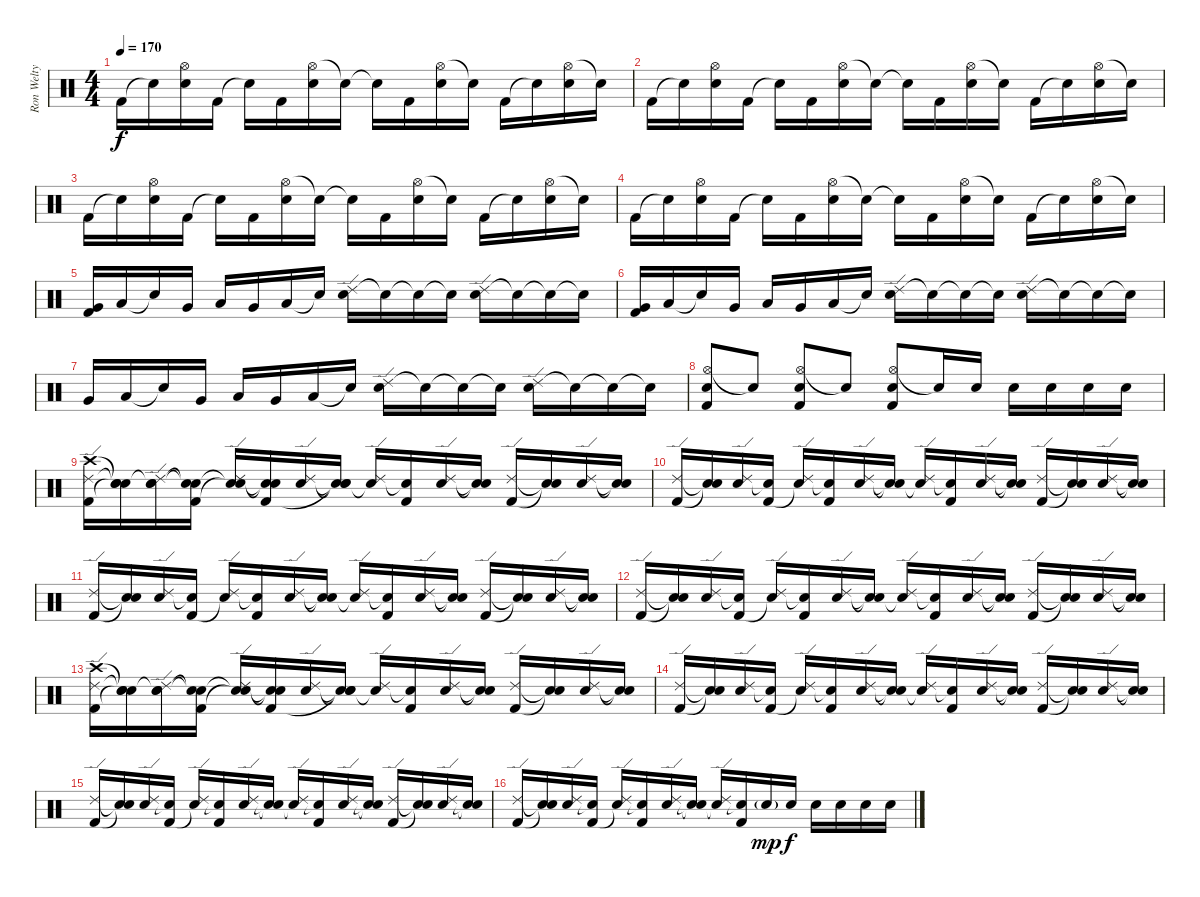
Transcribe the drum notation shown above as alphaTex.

\track ("Ron Welty" "Ron Welty") {instrument percussion}
\staff {score}
\articulation defaults
\ts (4 4)
\tempo 170
\clef neutral
\ks c "Kick (hit) 2".16{dy f} "Snare (hit)"{t}.16
("Hi-Hat (open)" "Electric Snare (hit)").16 "Kick (hit) 2".16 "Snare (hit)"{t}.16 "Kick (hit) 2".16 ("Hi-Hat (open)" "Electric Snare (hit)").16 "Snare (hit)"{t}.16 "Snare (hit)"{t}.16 "Kick (hit) 2".16 ("Hi-Hat (open)" "Electric Snare (hit)").16 "Snare (hit)"{t}.16 "Kick (hit) 2".16 "Snare (hit)"{t}.16 ("Hi-Hat (open)" "Electric Snare (hit)").16 "Snare (hit)"{t}.16 |
"Kick (hit) 2".16 "Snare (hit)"{t}.16 ("Hi-Hat (open)" "Electric Snare (hit)").16 "Kick (hit) 2".16 "Snare (hit)"{t}.16 "Kick (hit) 2".16 ("Hi-Hat (open)" "Electric Snare (hit)").16 "Snare (hit)"{t}.16 "Snare (hit)"{t}.16 "Kick (hit) 2".16 ("Hi-Hat (open)" "Electric Snare (hit)").16 "Snare (hit)"{t}.16 "Kick (hit) 2".16 "Snare (hit)"{t}.16 ("Hi-Hat (open)" "Electric Snare (hit)").16 "Snare (hit)"{t}.16 |
"Kick (hit) 2".16 "Snare (hit)"{t}.16 ("Hi-Hat (open)" "Electric Snare (hit)").16 "Kick (hit) 2".16 "Snare (hit)"{t}.16 "Kick (hit) 2".16 ("Hi-Hat (open)" "Electric Snare (hit)").16 "Snare (hit)"{t}.16 "Snare (hit)"{t}.16 "Kick (hit) 2".16 ("Hi-Hat (open)" "Electric Snare (hit)").16 "Snare (hit)"{t}.16 "Kick (hit) 2".16 "Snare (hit)"{t}.16 ("Hi-Hat (open)" "Electric Snare (hit)").16 "Snare (hit)"{t}.16 |
"Kick (hit) 2".16 "Snare (hit)"{t}.16 ("Hi-Hat (open)" "Electric Snare (hit)").16 "Kick (hit) 2".16 "Snare (hit)"{t}.16 "Kick (hit) 2".16 ("Hi-Hat (open)" "Electric Snare (hit)").16 "Snare (hit)"{t}.16 "Snare (hit)"{t}.16 "Kick (hit) 2".16 ("Hi-Hat (open)" "Electric Snare (hit)").16 "Snare (hit)"{t}.16 "Kick (hit) 2".16 "Snare (hit)"{t}.16 ("Hi-Hat (open)" "Electric Snare (hit)").16 "Snare (hit)"{t}.16 |
("Very Low Tom (hit)" "Kick (hit) 2").16 "Low Tom (hit)".16 "Snare (hit)"{t}.16 "Very Low Tom (hit)".16 "Low Tom (hit)".16 "Very Low Tom (hit)".16 "Low Floor Tom (hit)".16 "Snare (hit)"{t}.16 ("Ride (edge) 2" "Electric Snare (hit)").16 "Snare (hit)"{t}.16 "Electric Snare (hit)"{t}.16 "Snare (hit)"{t}.16 ("Ride (edge) 2" "Electric Snare (hit)").16 "Snare (hit)"{t}.16 "Snare (hit)"{t}.16 "Snare (hit)"{t}.16 |
("Very Low Tom (hit)" "Kick (hit) 2").16 "Low Tom (hit)".16 "Snare (hit)"{t}.16 "Very Low Tom (hit)".16 "Low Tom (hit)".16 "Very Low Tom (hit)".16 "Low Floor Tom (hit)".16 "Snare (hit)"{t}.16 ("Ride (edge) 2" "Electric Snare (hit)").16 "Snare (hit)"{t}.16 "Snare (hit)"{t}.16 "Snare (hit)"{t}.16 ("Ride (edge) 2" "Electric Snare (hit)").16 "Snare (hit)"{t}.16 "Snare (hit)"{t}.16 "Snare (hit)"{t}.16 |
"Very Low Tom (hit)".16 "Low Tom (hit)".16 "Snare (hit)"{t}.16 "Very Low Tom (hit)".16 "Low Tom (hit)".16 "Very Low Tom (hit)".16 "Low Floor Tom (hit)".16 "Snare (hit)"{t}.16 ("Ride (edge) 2" "Electric Snare (hit)").16 "Snare (hit)"{t}.16 "Snare (hit)"{t}.16 "Electric Snare (hit)"{t}.16 ("Ride (edge) 2" "Electric Snare (hit)").16 "Snare (hit)"{t}.16 "Snare (hit)"{t}.16 "Snare (hit)"{t}.16 |
("Hi-Hat (open)" "Electric Snare (hit)" "Kick (hit) 2").8 "Electric Snare (hit)"{t}.8 ("Hi-Hat (open)" "Electric Snare (hit)" "Kick (hit) 2").8 "Snare (hit)"{t}.8 ("Hi-Hat (open)" "Electric Snare (hit)" "Kick (hit) 2").8 "Snare (hit)"{t}.16 "Electric Snare (hit)".16 "Electric Snare (hit)".16 "Electric Snare (hit)".16 "Electric Snare (hit)".16 "Electric Snare (hit)".16 |
("Crash high (hit)" "Ride (edge) 2" "Kick (hit) 2").16 ("Snare (hit)"{t} "Snare (hit)"{t} "Snare (hit)"{t}).16 ("Snare (hit)"{t} "Ride (edge) 2" "Electric Snare (hit)").16 ("Snare (hit)"{t} "Snare (hit)"{t} "Kick (hit) 2").16 ("Snare (hit)"{t} "Ride (edge) 2" "Snare (hit)"{t}).16 ("Snare (hit)"{t} "Snare (hit)"{t} "Kick (hit) 2").16 ("Ride (edge) 2" "Electric Snare (hit)").16 ("Snare (hit)"{t} "Snare (hit)"{t} "Snare (hit)"{t}).16 ("Ride (edge) 2" "Snare (hit)"{t}).16 ("Snare (hit)"{t} "Kick (hit) 2").16 ("Ride (edge) 2" "Electric Snare (hit)").16 ("Snare (hit)"{t} "Snare (hit)"{t}).16 ("Ride (edge) 2" "Kick (hit) 2").16 ("Snare (hit)"{t} "Snare (hit)"{t}).16 ("Ride (edge) 2" "Electric Snare (hit)").16 ("Snare (hit)"{t} "Snare (hit)"{t}).16 |
("Ride (edge) 2" "Kick (hit) 2").16 ("Snare (hit)"{t} "Snare (hit)"{t}).16 ("Ride (edge) 2" "Electric Snare (hit)").16 ("Snare (hit)"{t} "Kick (hit) 2").16 ("Ride (edge) 2" "Snare (hit)"{t}).16 ("Snare (hit)"{t} "Kick (hit) 2").16 ("Ride (edge) 2" "Electric Snare (hit)").16 ("Snare (hit)"{t} "Snare (hit)"{t}).16 ("Ride (edge) 2" "Snare (hit)"{t}).16 ("Snare (hit)"{t} "Kick (hit) 2").16 ("Ride (edge) 2" "Electric Snare (hit)").16 ("Snare (hit)"{t} "Snare (hit)"{t}).16 ("Ride (edge) 2" "Kick (hit) 2").16 ("Snare (hit)"{t} "Snare (hit)"{t}).16 ("Ride (edge) 2" "Electric Snare (hit)").16 ("Snare (hit)"{t} "Snare (hit)"{t}).16 |
("Ride (edge) 2" "Kick (hit) 2").16 ("Snare (hit)"{t} "Snare (hit)"{t}).16 ("Ride (edge) 2" "Electric Snare (hit)").16 ("Snare (hit)"{t} "Kick (hit) 2").16 ("Ride (edge) 2" "Snare (hit)"{t}).16 ("Snare (hit)"{t} "Kick (hit) 2").16 ("Ride (edge) 2" "Electric Snare (hit)").16 ("Snare (hit)"{t} "Snare (hit)"{t}).16 ("Ride (edge) 2" "Snare (hit)"{t}).16 ("Snare (hit)"{t} "Kick (hit) 2").16 ("Ride (edge) 2" "Electric Snare (hit)").16 ("Snare (hit)"{t} "Snare (hit)"{t}).16 ("Ride (edge) 2" "Kick (hit) 2").16 ("Snare (hit)"{t} "Snare (hit)"{t}).16 ("Ride (edge) 2" "Electric Snare (hit)").16 ("Snare (hit)"{t} "Snare (hit)"{t}).16 |
("Ride (edge) 2" "Kick (hit) 2").16 ("Snare (hit)"{t} "Snare (hit)"{t}).16 ("Ride (edge) 2" "Electric Snare (hit)").16 ("Snare (hit)"{t} "Kick (hit) 2").16 ("Ride (edge) 2" "Snare (hit)"{t}).16 ("Snare (hit)"{t} "Kick (hit) 2").16 ("Ride (edge) 2" "Electric Snare (hit)").16 ("Snare (hit)"{t} "Snare (hit)"{t}).16 ("Ride (edge) 2" "Snare (hit)"{t}).16 ("Snare (hit)"{t} "Kick (hit) 2").16 ("Ride (edge) 2" "Electric Snare (hit)").16 ("Snare (hit)"{t} "Snare (hit)"{t}).16 ("Ride (edge) 2" "Kick (hit) 2").16 ("Snare (hit)"{t} "Snare (hit)"{t}).16 ("Ride (edge) 2" "Electric Snare (hit)").16 ("Snare (hit)"{t} "Snare (hit)"{t}).16 |
("Crash high (hit)" "Ride (edge) 2" "Kick (hit) 2").16 ("Snare (hit)"{t} "Snare (hit)"{t} "Snare (hit)"{t}).16 ("Snare (hit)"{t} "Ride (edge) 2" "Electric Snare (hit)").16 ("Snare (hit)"{t} "Snare (hit)"{t} "Kick (hit) 2").16 ("Snare (hit)"{t} "Ride (edge) 2" "Snare (hit)"{t}).16 ("Snare (hit)"{t} "Snare (hit)"{t} "Kick (hit) 2").16 ("Ride (edge) 2" "Electric Snare (hit)").16 ("Snare (hit)"{t} "Snare (hit)"{t} "Snare (hit)"{t}).16 ("Ride (edge) 2" "Snare (hit)"{t}).16 ("Snare (hit)"{t} "Kick (hit) 2").16 ("Ride (edge) 2" "Electric Snare (hit)").16 ("Snare (hit)"{t} "Snare (hit)"{t}).16 ("Ride (edge) 2" "Kick (hit) 2").16 ("Snare (hit)"{t} "Snare (hit)"{t}).16 ("Ride (edge) 2" "Electric Snare (hit)").16 ("Snare (hit)"{t} "Snare (hit)"{t}).16 |
("Ride (edge) 2" "Kick (hit) 2").16 ("Snare (hit)"{t} "Snare (hit)"{t}).16 ("Ride (edge) 2" "Electric Snare (hit)").16 ("Snare (hit)"{t} "Kick (hit) 2").16 ("Ride (edge) 2" "Snare (hit)"{t}).16 ("Snare (hit)"{t} "Kick (hit) 2").16 ("Ride (edge) 2" "Electric Snare (hit)").16 ("Snare (hit)"{t} "Snare (hit)"{t}).16 ("Ride (edge) 2" "Snare (hit)"{t}).16 ("Snare (hit)"{t} "Kick (hit) 2").16 ("Ride (edge) 2" "Electric Snare (hit)").16 ("Snare (hit)"{t} "Snare (hit)"{t}).16 ("Ride (edge) 2" "Kick (hit) 2").16 ("Snare (hit)"{t} "Snare (hit)"{t}).16 ("Ride (edge) 2" "Electric Snare (hit)").16 ("Snare (hit)"{t} "Snare (hit)"{t}).16 |
("Ride (edge) 2" "Kick (hit) 2").16 ("Snare (hit)"{t} "Snare (hit)"{t}).16 ("Ride (edge) 2" "Electric Snare (hit)").16 ("Snare (hit)"{t} "Kick (hit) 2").16 ("Ride (edge) 2" "Snare (hit)"{t}).16 ("Snare (hit)"{t} "Kick (hit) 2").16 ("Ride (edge) 2" "Electric Snare (hit)").16 ("Snare (hit)"{t} "Snare (hit)"{t}).16 ("Ride (edge) 2" "Snare (hit)"{t}).16 ("Snare (hit)"{t} "Kick (hit) 2").16 ("Ride (edge) 2" "Electric Snare (hit)").16 ("Snare (hit)"{t} "Snare (hit)"{t}).16 ("Ride (edge) 2" "Kick (hit) 2").16 ("Snare (hit)"{t} "Snare (hit)"{t}).16 ("Ride (edge) 2" "Electric Snare (hit)").16 ("Snare (hit)"{t} "Snare (hit)"{t}).16 |
("Ride (edge) 2" "Kick (hit) 2").16 ("Snare (hit)"{t} "Snare (hit)"{t}).16 ("Ride (edge) 2" "Electric Snare (hit)").16 ("Snare (hit)"{t} "Kick (hit) 2").16 ("Ride (edge) 2" "Snare (hit)"{t}).16 ("Snare (hit)"{t} "Kick (hit) 2").16 ("Ride (edge) 2" "Electric Snare (hit)").16 ("Snare (hit)"{t} "Snare (hit)"{t}).16 ("Ride (edge) 2" "Snare (hit)"{t}).16 ("Snare (hit)"{t} "Kick (hit) 2").16 "Electric Snare (hit)"{g}.16{dy mp} "Electric Snare (hit)".16{dy f} "Electric Snare (hit)".16 "Electric Snare (hit)".16 "Electric Snare (hit)".16 "Electric Snare (hit)".16
